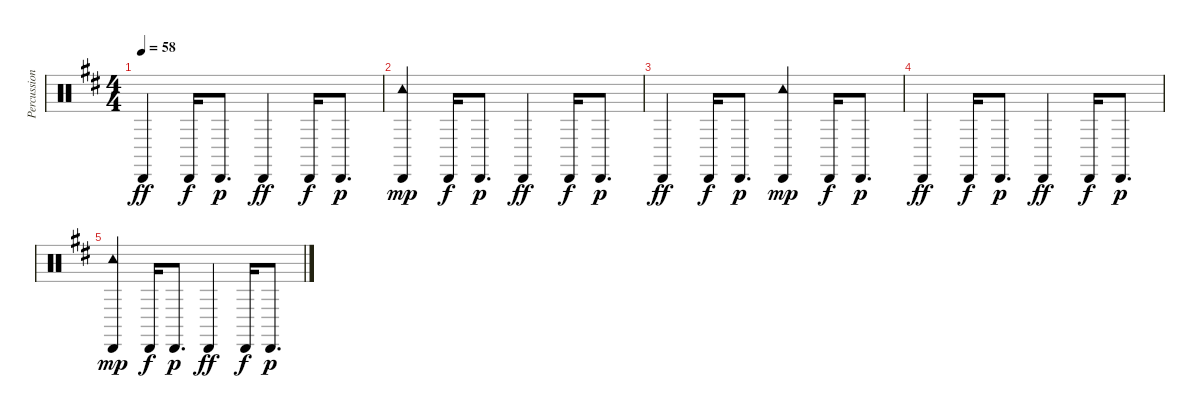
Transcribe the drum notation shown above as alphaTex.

\track ("Percussion" "Percussion") {instrument percussion}
\staff {score}
\articulation defaults
\ts (4 4)
\tempo 58
\clef neutral
\ks bminor "Cabasa (hit)".4{dy ff} "Cabasa (hit)".16{dy f} "Cabasa (hit)".8{d dy p} "Cabasa (hit)".4{dy ff} "Cabasa (hit)".16{dy f} "Cabasa (hit)".8{d dy p}
|
("Cabasa (hit)" "Tambourine (hit)").4{dy mp} "Cabasa (hit)".16{dy f} "Cabasa (hit)".8{d dy p} "Cabasa (hit)".4{dy ff} "Cabasa (hit)".16{dy f} "Cabasa (hit)".8{d dy p} |
"Cabasa (hit)".4{dy ff} "Cabasa (hit)".16{dy f} "Cabasa (hit)".8{d dy p} ("Cabasa (hit)" "Tambourine (hit)").4{dy mp} "Cabasa (hit)".16{dy f} "Cabasa (hit)".8{d dy p} |
"Cabasa (hit)".4{dy ff} "Cabasa (hit)".16{dy f} "Cabasa (hit)".8{d dy p} "Cabasa (hit)".4{dy ff} "Cabasa (hit)".16{dy f} "Cabasa (hit)".8{d dy p} |
("Cabasa (hit)" "Tambourine (hit)").4{dy mp} "Cabasa (hit)".16{dy f} "Cabasa (hit)".8{d dy p} "Cabasa (hit)".4{dy ff} "Cabasa (hit)".16{dy f} "Cabasa (hit)".8{d dy p}
